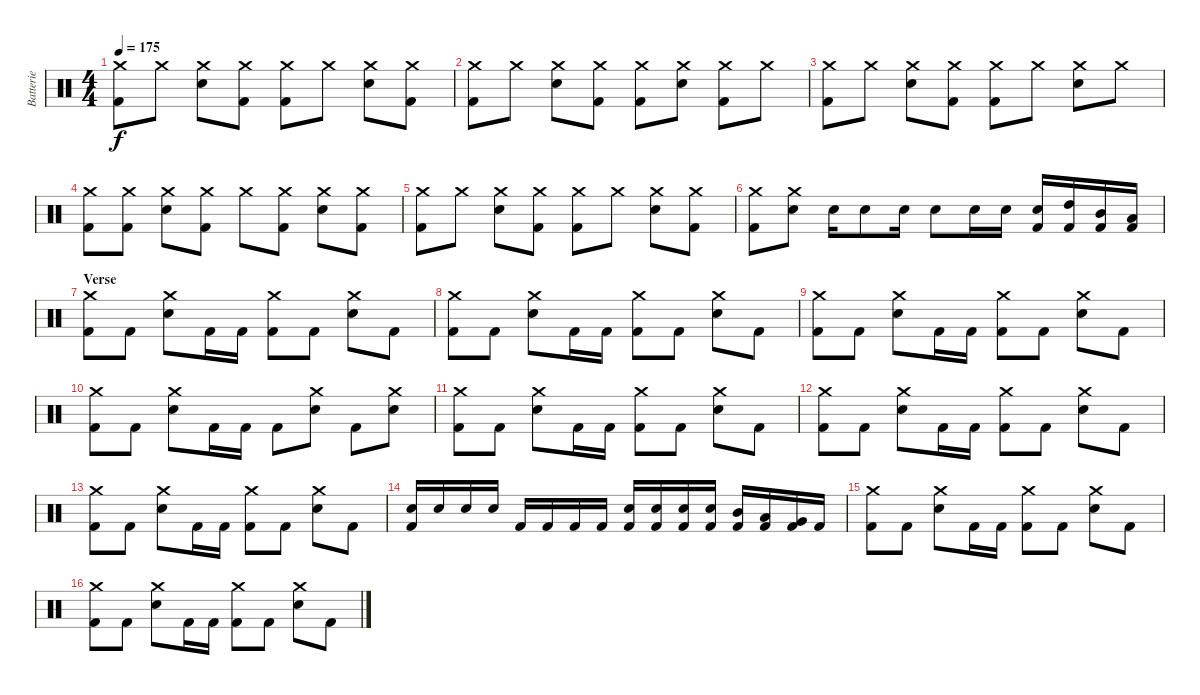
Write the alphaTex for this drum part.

\track ("Batterie" "Batterie") {instrument percussion}
\staff {score}
\articulation defaults
\ts (4 4)
\tempo 175
\clef neutral
\ks c
("Crash medium (hit)" "Kick (hit) 2").8{dy f} "Crash medium (hit)".8 ("Crash medium (hit)" "Electric Snare (hit)").8 ("Crash medium (hit)" "Kick (hit) 2").8 ("Crash medium (hit)" "Kick (hit) 2").8 "Crash medium (hit)".8 ("Crash medium (hit)" "Electric Snare (hit)").8 ("Crash medium (hit)" "Kick (hit) 2").8 |
("Crash medium (hit)" "Kick (hit) 2").8 "Crash medium (hit)".8 ("Crash medium (hit)" "Electric Snare (hit)").8 ("Crash medium (hit)" "Kick (hit) 2").8 ("Crash medium (hit)" "Kick (hit) 2").8 ("Crash medium (hit)" "Electric Snare (hit)").8 ("Crash medium (hit)" "Kick (hit) 2").8 "Crash medium (hit)".8 |
("Crash medium (hit)" "Kick (hit) 2").8 "Crash medium (hit)".8 ("Crash medium (hit)" "Electric Snare (hit)").8 ("Crash medium (hit)" "Kick (hit) 2").8 ("Crash medium (hit)" "Kick (hit) 2").8 "Crash medium (hit)".8 ("Crash medium (hit)" "Electric Snare (hit)").8 "Crash medium (hit)".8 |
("Crash medium (hit)" "Kick (hit) 2").8 ("Crash medium (hit)" "Kick (hit) 2").8 ("Crash medium (hit)" "Electric Snare (hit)").8 ("Crash medium (hit)" "Kick (hit) 2").8 "Crash medium (hit)".8 ("Crash medium (hit)" "Kick (hit) 2").8 ("Crash medium (hit)" "Electric Snare (hit)").8 ("Crash medium (hit)" "Kick (hit) 2").8 |
("Crash medium (hit)" "Kick (hit) 2").8 "Crash medium (hit)".8 ("Crash medium (hit)" "Electric Snare (hit)").8 ("Crash medium (hit)" "Kick (hit) 2").8 ("Crash medium (hit)" "Kick (hit) 2").8 "Crash medium (hit)".8 ("Crash medium (hit)" "Electric Snare (hit)").8 ("Crash medium (hit)" "Kick (hit) 2").8 |
("Crash medium (hit)" "Kick (hit) 2").8 ("Crash medium (hit)" "Electric Snare (hit)").8 "Electric Snare (hit)".16 "Electric Snare (hit)".8 "Electric Snare (hit)".16 "Electric Snare (hit)".8 "Electric Snare (hit)".16 "Electric Snare (hit)".16 ("Electric Snare (hit)" "Kick (hit) 2").16 ("High Tom (hit)" "Kick (hit) 2").16 ("Mid Tom (hit)" "Kick (hit) 2").16 ("Low Tom (hit)" "Kick (hit) 2").16 |
\section ("" "Verse")
("Crash medium (hit)" "Kick (hit) 2").8 "Kick (hit) 2".8 ("Crash medium (hit)" "Electric Snare (hit)").8 "Kick (hit) 2".16 "Kick (hit) 2".16 ("Crash medium (hit)" "Kick (hit) 2").8 "Kick (hit) 2".8 ("Crash medium (hit)" "Electric Snare (hit)").8 "Kick (hit) 2".8 |
("Crash medium (hit)" "Kick (hit) 2").8 "Kick (hit) 2".8 ("Crash medium (hit)" "Electric Snare (hit)").8 "Kick (hit) 2".16 "Kick (hit) 2".16 ("Crash medium (hit)" "Kick (hit) 2").8 "Kick (hit) 2".8 ("Crash medium (hit)" "Electric Snare (hit)").8 "Kick (hit) 2".8 |
("Crash medium (hit)" "Kick (hit) 2").8 "Kick (hit) 2".8 ("Crash medium (hit)" "Electric Snare (hit)").8 "Kick (hit) 2".16 "Kick (hit) 2".16 ("Crash medium (hit)" "Kick (hit) 2").8 "Kick (hit) 2".8 ("Crash medium (hit)" "Electric Snare (hit)").8 "Kick (hit) 2".8 |
("Crash medium (hit)" "Kick (hit) 2").8 "Kick (hit) 2".8 ("Crash medium (hit)" "Electric Snare (hit)").8 "Kick (hit) 2".16 "Kick (hit) 2".16 "Kick (hit) 2".8 ("Crash medium (hit)" "Electric Snare (hit)").8 "Kick (hit) 2".8 ("Crash medium (hit)" "Electric Snare (hit)").8 |
("Crash medium (hit)" "Kick (hit) 2").8 "Kick (hit) 2".8 ("Crash medium (hit)" "Electric Snare (hit)").8 "Kick (hit) 2".16 "Kick (hit) 2".16 ("Crash medium (hit)" "Kick (hit) 2").8 "Kick (hit) 2".8 ("Crash medium (hit)" "Electric Snare (hit)").8 "Kick (hit) 2".8 |
("Crash medium (hit)" "Kick (hit) 2").8 "Kick (hit) 2".8 ("Crash medium (hit)" "Electric Snare (hit)").8 "Kick (hit) 2".16 "Kick (hit) 2".16 ("Crash medium (hit)" "Kick (hit) 2").8 "Kick (hit) 2".8 ("Crash medium (hit)" "Electric Snare (hit)").8 "Kick (hit) 2".8 |
("Crash medium (hit)" "Kick (hit) 2").8 "Kick (hit) 2".8 ("Crash medium (hit)" "Electric Snare (hit)").8 "Kick (hit) 2".16 "Kick (hit) 2".16 ("Crash medium (hit)" "Kick (hit) 2").8 "Kick (hit) 2".8 ("Crash medium (hit)" "Electric Snare (hit)").8 "Kick (hit) 2".8 |
("Electric Snare (hit)" "Kick (hit) 2").16 "Electric Snare (hit)".16 "Electric Snare (hit)".16 "Electric Snare (hit)".16 "Kick (hit) 2".16 "Kick (hit) 2".16 "Kick (hit) 2".16 "Kick (hit) 2".16 ("Electric Snare (hit)" "Kick (hit) 2").16 ("Electric Snare (hit)" "Kick (hit) 2").16 ("Electric Snare (hit)" "Kick (hit) 2").16 ("Electric Snare (hit)" "Kick (hit) 2").16 ("Mid Tom (hit)" "Kick (hit) 2").16 ("Low Tom (hit)" "Kick (hit) 2").16 ("Very Low Tom (hit)" "Kick (hit) 2").16 "Kick (hit) 2".16 |
("Crash medium (hit)" "Kick (hit) 2").8 "Kick (hit) 2".8 ("Crash medium (hit)" "Electric Snare (hit)").8 "Kick (hit) 2".16 "Kick (hit) 2".16 ("Crash medium (hit)" "Kick (hit) 2").8 "Kick (hit) 2".8 ("Crash medium (hit)" "Electric Snare (hit)").8 "Kick (hit) 2".8 |
("Crash medium (hit)" "Kick (hit) 2").8 "Kick (hit) 2".8 ("Crash medium (hit)" "Electric Snare (hit)").8 "Kick (hit) 2".16 "Kick (hit) 2".16 ("Crash medium (hit)" "Kick (hit) 2").8 "Kick (hit) 2".8 ("Crash medium (hit)" "Electric Snare (hit)").8 "Kick (hit) 2".8
